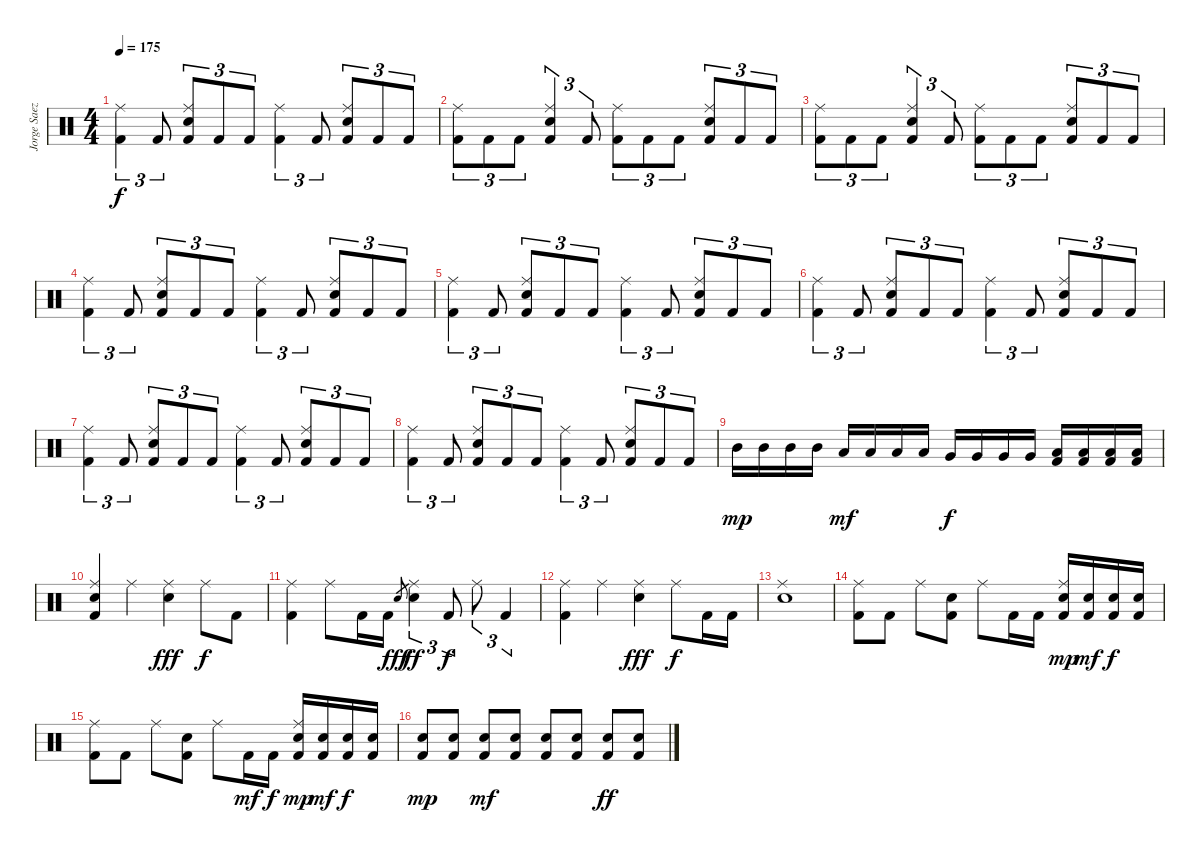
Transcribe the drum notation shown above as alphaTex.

\track ("Jorge Saez, Drums" "Jorge Saez") {instrument percussion}
\staff
\articulation defaults
\ts (4 4)
\tempo 175
\clef neutral
\ks c
("Kick (hit) 2" "Ride (middle)").4{tu (3 2) dy f} "Kick (hit) 2".8{tu (3 2)} ("Kick (hit) 2" "Electric Snare (hit)" "Ride (middle)").8{tu (3 2)} "Kick (hit) 2".8{tu (3 2)} "Kick (hit) 2".8{tu (3 2)} ("Kick (hit) 2" "Ride (middle)").4{tu (3 2)} "Kick (hit) 2".8{tu (3 2)} ("Kick (hit) 2" "Electric Snare (hit)" "Ride (middle)").8{tu (3 2)} "Kick (hit) 2".8{tu (3 2)} "Kick (hit) 2".8{tu (3 2)} |
("Kick (hit) 2" "Ride (middle)").8{tu (3 2)} "Kick (hit) 2".8{tu (3 2)} "Kick (hit) 2".8{tu (3 2)} ("Kick (hit) 2" "Electric Snare (hit)" "Ride (middle)").4{tu (3 2)} "Kick (hit) 2".8{tu (3 2)} ("Kick (hit) 2" "Ride (middle)").8{tu (3 2)} "Kick (hit) 2".8{tu (3 2)} "Kick (hit) 2".8{tu (3 2)} ("Kick (hit) 2" "Electric Snare (hit)" "Ride (middle)").8{tu (3 2)} "Kick (hit) 2".8{tu (3 2)} "Kick (hit) 2".8{tu (3 2)} |
("Kick (hit) 2" "Ride (middle)").8{tu (3 2)} "Kick (hit) 2".8{tu (3 2)} "Kick (hit) 2".8{tu (3 2)} ("Kick (hit) 2" "Electric Snare (hit)" "Ride (middle)").4{tu (3 2)} "Kick (hit) 2".8{tu (3 2)} ("Kick (hit) 2" "Ride (middle)").8{tu (3 2)} "Kick (hit) 2".8{tu (3 2)} "Kick (hit) 2".8{tu (3 2)} ("Kick (hit) 2" "Electric Snare (hit)" "Ride (middle)").8{tu (3 2)} "Kick (hit) 2".8{tu (3 2)} "Kick (hit) 2".8{tu (3 2)} |
("Kick (hit) 2" "Ride (middle)").4{tu (3 2)} "Kick (hit) 2".8{tu (3 2)} ("Kick (hit) 2" "Electric Snare (hit)" "Ride (middle)").8{tu (3 2)} "Kick (hit) 2".8{tu (3 2)} "Kick (hit) 2".8{tu (3 2)} ("Kick (hit) 2" "Ride (middle)").4{tu (3 2)} "Kick (hit) 2".8{tu (3 2)} ("Kick (hit) 2" "Electric Snare (hit)" "Ride (middle)").8{tu (3 2)} "Kick (hit) 2".8{tu (3 2)} "Kick (hit) 2".8{tu (3 2)} |
("Kick (hit) 2" "Ride (middle)").4{tu (3 2)} "Kick (hit) 2".8{tu (3 2)} ("Kick (hit) 2" "Electric Snare (hit)" "Ride (middle)").8{tu (3 2)} "Kick (hit) 2".8{tu (3 2)} "Kick (hit) 2".8{tu (3 2)} ("Kick (hit) 2" "Ride (middle)").4{tu (3 2)} "Kick (hit) 2".8{tu (3 2)} ("Kick (hit) 2" "Electric Snare (hit)" "Ride (middle)").8{tu (3 2)} "Kick (hit) 2".8{tu (3 2)} "Kick (hit) 2".8{tu (3 2)} |
("Kick (hit) 2" "Ride (middle)").4{tu (3 2)} "Kick (hit) 2".8{tu (3 2)} ("Kick (hit) 2" "Electric Snare (hit)" "Ride (middle)").8{tu (3 2)} "Kick (hit) 2".8{tu (3 2)} "Kick (hit) 2".8{tu (3 2)} ("Kick (hit) 2" "Ride (middle)").4{tu (3 2)} "Kick (hit) 2".8{tu (3 2)} ("Kick (hit) 2" "Electric Snare (hit)" "Ride (middle)").8{tu (3 2)} "Kick (hit) 2".8{tu (3 2)} "Kick (hit) 2".8{tu (3 2)} |
("Kick (hit) 2" "Ride (middle)").4{tu (3 2)} "Kick (hit) 2".8{tu (3 2)} ("Kick (hit) 2" "Electric Snare (hit)" "Ride (middle)").8{tu (3 2)} "Kick (hit) 2".8{tu (3 2)} "Kick (hit) 2".8{tu (3 2)} ("Kick (hit) 2" "Ride (middle)").4{tu (3 2)} "Kick (hit) 2".8{tu (3 2)} ("Kick (hit) 2" "Electric Snare (hit)" "Ride (middle)").8{tu (3 2)} "Kick (hit) 2".8{tu (3 2)} "Kick (hit) 2".8{tu (3 2)} |
("Kick (hit) 2" "Ride (middle)").4{tu (3 2)} "Kick (hit) 2".8{tu (3 2)} ("Kick (hit) 2" "Electric Snare (hit)" "Ride (middle)").8{tu (3 2)} "Kick (hit) 2".8{tu (3 2)} "Kick (hit) 2".8{tu (3 2)} ("Kick (hit) 2" "Ride (middle)").4{tu (3 2)} "Kick (hit) 2".8{tu (3 2)} ("Kick (hit) 2" "Electric Snare (hit)" "Ride (middle)").8{tu (3 2)} "Kick (hit) 2".8{tu (3 2)} "Kick (hit) 2".8{tu (3 2)} |
"Mid Tom (hit)".16{dy mp} "Mid Tom (hit)".16 "Mid Tom (hit)".16 "Mid Tom (hit)".16 "Low Tom (hit)".16{dy mf} "Low Tom (hit)".16 "Low Tom (hit)".16 "Low Tom (hit)".16 "Very Low Tom (hit)".16{dy f} "Very Low Tom (hit)".16 "Very Low Tom (hit)".16 "Very Low Tom (hit)".16 ("Kick (hit) 2" "Low Floor Tom (hit)").16 ("Kick (hit) 2" "Low Floor Tom (hit)").16 ("Kick (hit) 2" "Low Floor Tom (hit)").16 ("Kick (hit) 2" "Low Floor Tom (hit)").16 |
("Kick (hit) 2" "Electric Snare (hit)" "Ride (middle)").4 "Ride (middle)".4 ("Electric Snare (hit)" "Ride (middle)").4{dy fff} "Ride (middle)".8{dy f} "Kick (hit) 2".8 |
("Kick (hit) 2" "Ride (middle)").4 "Ride (middle)".8 "Kick (hit) 2".16 "Kick (hit) 2".16 "Electric Snare (hit)".8{gr dy fff} ("Electric Snare (hit)" "Ride (middle)").4{tu (3 2) dy ff} "Kick (hit) 2".8{tu (3 2) dy f} "Ride (middle)".8{tu (3 2)} "Kick (hit) 2".4{tu (3 2)} |
("Kick (hit) 2" "Ride (middle)").4 "Ride (middle)".4 ("Electric Snare (hit)" "Ride (middle)").4{dy fff} "Ride (middle)".8{dy f} "Kick (hit) 2".16 "Kick (hit) 2".16 |
("Electric Snare (hit)" "Ride (middle)").1 |
("Kick (hit) 2" "Ride (middle)").8 "Kick (hit) 2".8 "Ride (middle)".8 ("Kick (hit) 2" "Electric Snare (hit)").8 "Ride (middle)".8 "Kick (hit) 2".16 "Kick (hit) 2".16 ("Kick (hit) 2" "Electric Snare (hit)" "Ride (middle)").16{dy mp} ("Kick (hit) 2" "Electric Snare (hit)").16{dy mf} ("Kick (hit) 2" "Electric Snare (hit)").16{dy f} ("Kick (hit) 2" "Electric Snare (hit)").16 |
("Kick (hit) 2" "Ride (middle)").8 "Kick (hit) 2".8 "Ride (middle)".8 ("Kick (hit) 2" "Electric Snare (hit)").8 "Ride (middle)".8 "Kick (hit) 2".16{dy mf} "Kick (hit) 2".16{dy f} ("Kick (hit) 2" "Electric Snare (hit)" "Ride (middle)").16{dy mp} ("Kick (hit) 2" "Electric Snare (hit)").16{dy mf} ("Kick (hit) 2" "Electric Snare (hit)").16{dy f} ("Kick (hit) 2" "Electric Snare (hit)").16 |
("Kick (hit) 2" "Electric Snare (hit)").8{dy mp} ("Kick (hit) 2" "Electric Snare (hit)").8 ("Kick (hit) 2" "Electric Snare (hit)").8{dy mf} ("Kick (hit) 2" "Electric Snare (hit)").8 ("Kick (hit) 2" "Electric Snare (hit)").8 ("Kick (hit) 2" "Electric Snare (hit)").8 ("Kick (hit) 2" "Electric Snare (hit)").8{dy ff} ("Kick (hit) 2" "Electric Snare (hit)").8
